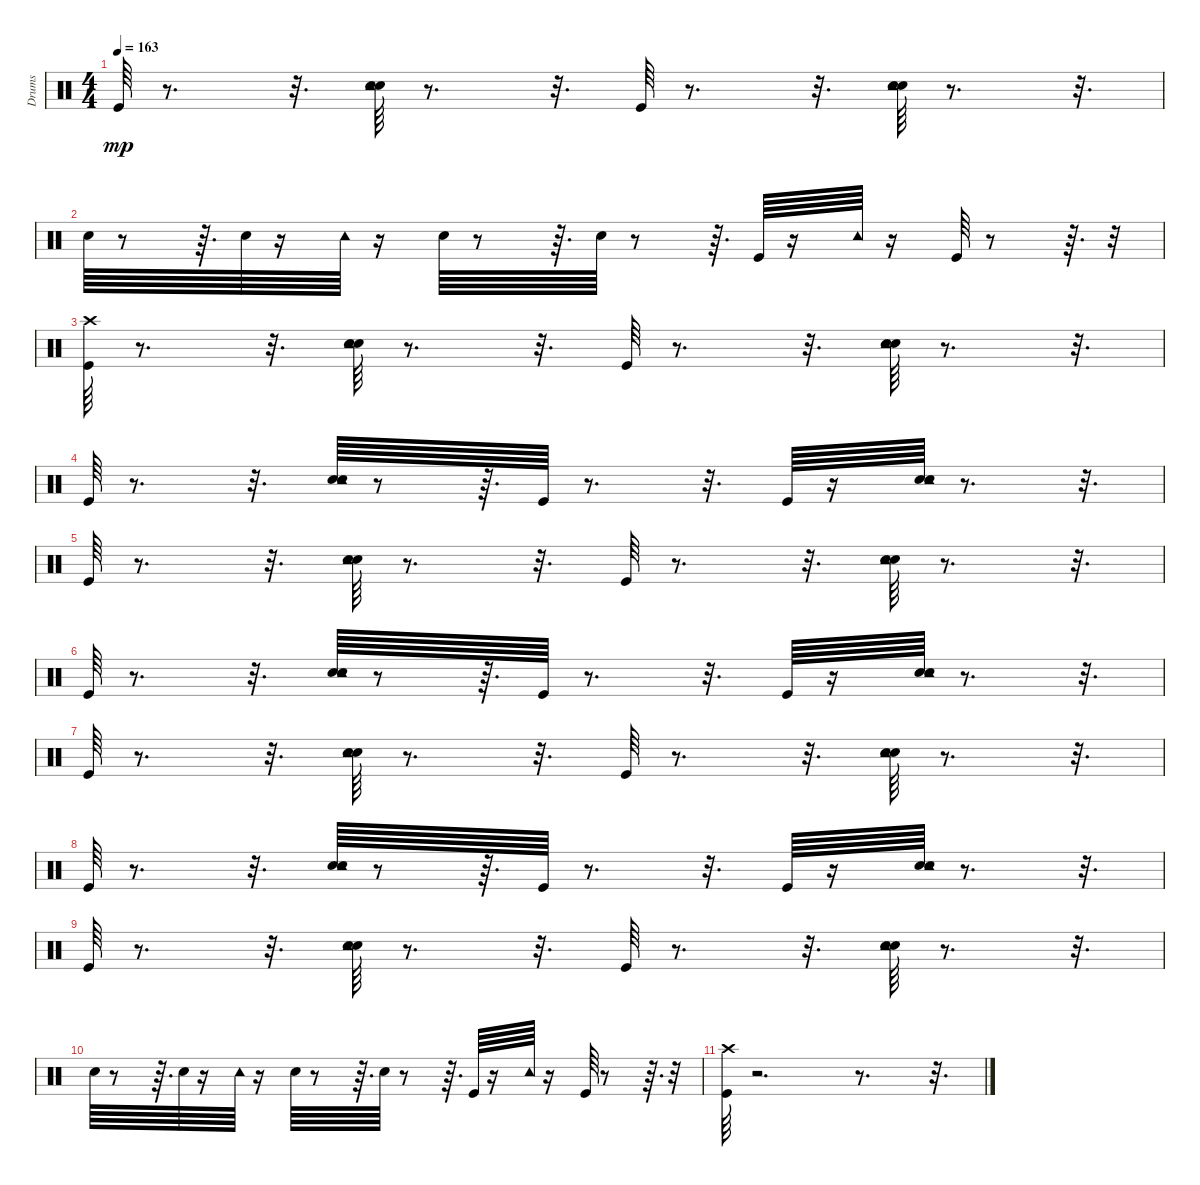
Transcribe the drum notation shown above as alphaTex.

\track ("Drums" "Drums") {instrument percussion}
\staff {score}
\articulation defaults
\ts (4 4)
\tempo 163
\clef neutral
\ks c "Kick (hit)".64{dy mp}
r.8{d} r.32{d} ("Snare (hit) 2" "Tambourine (hit)" "Hand Clap (hit)").64 r.8{d} r.32{d} "Kick (hit)".64 r.8{d} r.32{d} ("Snare (hit) 2" "Tambourine (hit)" "Hand Clap (hit)").64 r.8{d} r.32{d} |
"Snare (hit) 2".64 r.8 r.64{d} "Snare (hit) 2".64 r.16 "Tambourine (hit)".64 r.16 "Snare (hit) 2".64 r.8 r.64{d} "Snare (hit) 2".64 r.8 r.64{d} "Kick (hit)".64 r.16 "Tambourine (hit)".64 r.16 "Kick (hit)".64 r.8 r.64{d} r.32 |
("Kick (hit)" "Crash high (hit)").64 r.8{d} r.32{d} ("Snare (hit) 2" "Tambourine (hit)" "Hand Clap (hit)").64 r.8{d} r.32{d} "Kick (hit)".64 r.8{d} r.32{d} ("Snare (hit) 2" "Tambourine (hit)" "Hand Clap (hit)").64 r.8{d} r.32{d} |
"Kick (hit)".64 r.8{d} r.32{d} ("Snare (hit) 2" "Tambourine (hit)" "Hand Clap (hit)").64 r.8 r.64{d} "Kick (hit)".64 r.8{d} r.32{d} "Kick (hit)".64 r.16 ("Snare (hit) 2" "Tambourine (hit)" "Hand Clap (hit)").64 r.8{d} r.32{d} |
"Kick (hit)".64 r.8{d} r.32{d} ("Snare (hit) 2" "Tambourine (hit)" "Hand Clap (hit)").64 r.8{d} r.32{d} "Kick (hit)".64 r.8{d} r.32{d} ("Snare (hit) 2" "Tambourine (hit)" "Hand Clap (hit)").64 r.8{d} r.32{d} |
"Kick (hit)".64 r.8{d} r.32{d} ("Snare (hit) 2" "Tambourine (hit)" "Hand Clap (hit)").64 r.8 r.64{d} "Kick (hit)".64 r.8{d} r.32{d} "Kick (hit)".64 r.16 ("Snare (hit) 2" "Tambourine (hit)" "Hand Clap (hit)").64 r.8{d} r.32{d} |
"Kick (hit)".64 r.8{d} r.32{d} ("Snare (hit) 2" "Tambourine (hit)" "Hand Clap (hit)").64 r.8{d} r.32{d} "Kick (hit)".64 r.8{d} r.32{d} ("Snare (hit) 2" "Tambourine (hit)" "Hand Clap (hit)").64 r.8{d} r.32{d} |
"Kick (hit)".64 r.8{d} r.32{d} ("Snare (hit) 2" "Tambourine (hit)" "Hand Clap (hit)").64 r.8 r.64{d} "Kick (hit)".64 r.8{d} r.32{d} "Kick (hit)".64 r.16 ("Snare (hit) 2" "Tambourine (hit)" "Hand Clap (hit)").64 r.8{d} r.32{d} |
"Kick (hit)".64 r.8{d} r.32{d} ("Snare (hit) 2" "Tambourine (hit)" "Hand Clap (hit)").64 r.8{d} r.32{d} "Kick (hit)".64 r.8{d} r.32{d} ("Snare (hit) 2" "Tambourine (hit)" "Hand Clap (hit)").64 r.8{d} r.32{d} |
"Snare (hit) 2".64 r.8 r.64{d} "Snare (hit) 2".64 r.16 "Tambourine (hit)".64 r.16 "Snare (hit) 2".64 r.8 r.64{d} "Snare (hit) 2".64 r.8 r.64{d} "Kick (hit)".64 r.16 "Tambourine (hit)".64 r.16 "Kick (hit)".64 r.8 r.64{d} r.32 |
("Kick (hit)" "Crash high (hit)").64 r.2{d} r.8{d} r.32{d}
